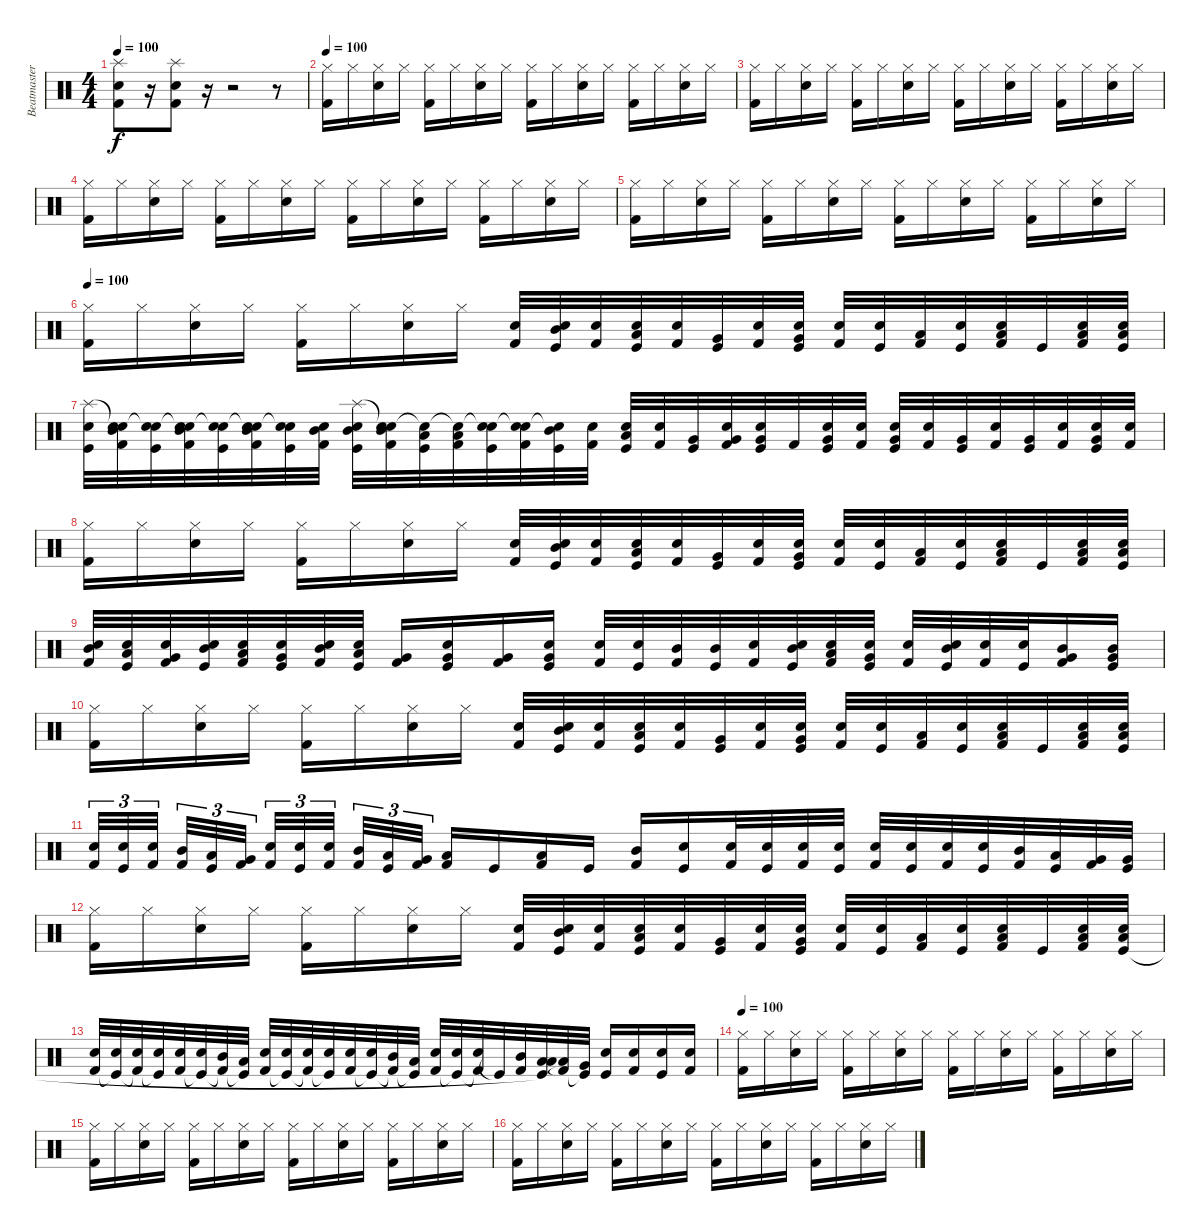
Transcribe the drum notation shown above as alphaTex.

\track ("Beatmaster V." "Beatmaster") {instrument percussion}
\staff {score}
\articulation defaults
\ts (4 4)
\tempo 100
\clef neutral
\ks c
("Splash (hit)" "Snare (hit) 2" "Kick (hit) 2").8{dy f} r.16 ("Splash (hit)" "Snare (hit) 2" "Kick (hit) 2").8 r.16 r.2 r.8 |
\tempo 100
("Hi-Hat (closed)" "Kick (hit) 2").16 "Hi-Hat (closed)".16 ("Hi-Hat (closed)" "Snare (hit) 2").16 "Hi-Hat (closed)".16 ("Hi-Hat (closed)" "Kick (hit) 2").16 "Hi-Hat (closed)".16 ("Hi-Hat (closed)" "Snare (hit) 2").16 "Hi-Hat (closed)".16 ("Hi-Hat (closed)" "Kick (hit) 2").16 "Hi-Hat (closed)".16 ("Hi-Hat (closed)" "Snare (hit) 2").16 "Hi-Hat (closed)".16 ("Hi-Hat (closed)" "Kick (hit) 2").16 "Hi-Hat (closed)".16 ("Hi-Hat (closed)" "Snare (hit) 2").16 "Hi-Hat (closed)".16 |
("Hi-Hat (closed)" "Kick (hit) 2").16 "Hi-Hat (closed)".16 ("Hi-Hat (closed)" "Snare (hit) 2").16 "Hi-Hat (closed)".16 ("Hi-Hat (closed)" "Kick (hit) 2").16 "Hi-Hat (closed)".16 ("Hi-Hat (closed)" "Snare (hit) 2").16 "Hi-Hat (closed)".16 ("Hi-Hat (closed)" "Kick (hit) 2").16 "Hi-Hat (closed)".16 ("Hi-Hat (closed)" "Snare (hit) 2").16 "Hi-Hat (closed)".16 ("Hi-Hat (closed)" "Kick (hit) 2").16 "Hi-Hat (closed)".16 ("Hi-Hat (closed)" "Snare (hit) 2").16 "Hi-Hat (closed)".16 |
("Hi-Hat (closed)" "Kick (hit) 2").16 "Hi-Hat (closed)".16 ("Hi-Hat (closed)" "Snare (hit) 2").16 "Hi-Hat (closed)".16 ("Hi-Hat (closed)" "Kick (hit) 2").16 "Hi-Hat (closed)".16 ("Hi-Hat (closed)" "Snare (hit) 2").16 "Hi-Hat (closed)".16 ("Hi-Hat (closed)" "Kick (hit) 2").16 "Hi-Hat (closed)".16 ("Hi-Hat (closed)" "Snare (hit) 2").16 "Hi-Hat (closed)".16 ("Hi-Hat (closed)" "Kick (hit) 2").16 "Hi-Hat (closed)".16 ("Hi-Hat (closed)" "Snare (hit) 2").16 "Hi-Hat (closed)".16 |
("Hi-Hat (closed)" "Kick (hit) 2").16 "Hi-Hat (closed)".16 ("Hi-Hat (closed)" "Snare (hit) 2").16 "Hi-Hat (closed)".16 ("Hi-Hat (closed)" "Kick (hit) 2").16 "Hi-Hat (closed)".16 ("Hi-Hat (closed)" "Snare (hit) 2").16 "Hi-Hat (closed)".16 ("Hi-Hat (closed)" "Kick (hit) 2").16 "Hi-Hat (closed)".16 ("Hi-Hat (closed)" "Snare (hit) 2").16 "Hi-Hat (closed)".16 ("Hi-Hat (closed)" "Kick (hit) 2").16 "Hi-Hat (closed)".16 ("Hi-Hat (closed)" "Snare (hit) 2").16 "Hi-Hat (closed)".16 |
\tempo 100
("Hi-Hat (closed)" "Kick (hit) 2").16 "Hi-Hat (closed)".16 ("Hi-Hat (closed)" "Snare (hit) 2").16 "Hi-Hat (closed)".16 ("Hi-Hat (closed)" "Kick (hit) 2").16 "Hi-Hat (closed)".16 ("Hi-Hat (closed)" "Snare (hit) 2").16 "Hi-Hat (closed)".16 ("Snare (hit) 2" "Kick (hit) 2").32 ("Snare (hit) 2" "Mid Tom (hit)" "Kick (hit)").32 ("Snare (hit) 2" "Kick (hit) 2").32 ("Snare (hit) 2" "Low Tom (hit)" "Kick (hit)").32 ("Snare (hit) 2" "Kick (hit) 2").32 ("Very Low Tom (hit)" "Kick (hit)").32 ("Snare (hit) 2" "Kick (hit) 2").32 ("Snare (hit) 2" "Very Low Tom (hit)" "Kick (hit)").32 ("Snare (hit) 2" "Kick (hit) 2").32 ("Snare (hit) 2" "Kick (hit)").32 ("Low Tom (hit)" "Kick (hit) 2").32 ("Snare (hit) 2" "Kick (hit)").32 ("Snare (hit) 2" "Low Tom (hit)" "Kick (hit) 2").32 "Kick (hit)".32 ("Snare (hit) 2" "Low Tom (hit)" "Kick (hit) 2").32 ("Snare (hit) 2" "Low Tom (hit)" "Kick (hit)").32 |
("Splash (hit)" "Snare (hit) 2" "Kick (hit)").32 ("Snare (hit)"{t} "Snare (hit) 2" "Mid Tom (hit)" "Kick (hit) 2").32 ("Snare (hit)"{t} "Snare (hit) 2" "Kick (hit)").32 ("Snare (hit)"{t} "Snare (hit) 2" "Mid Tom (hit)" "Kick (hit) 2").32 ("Snare (hit)"{t} "Snare (hit) 2" "Kick (hit)").32 ("Snare (hit)"{t} "Snare (hit) 2" "Mid Tom (hit)" "Kick (hit) 2").32 ("Snare (hit)"{t} "Snare (hit) 2" "Kick (hit)").32 ("Snare (hit) 2" "Mid Tom (hit)" "Kick (hit) 2").32 ("Splash (hit)" "Snare (hit) 2" "Mid Tom (hit)" "Kick (hit)").32 ("Snare (hit)"{t} "Snare (hit) 2" "Mid Tom (hit)" "Kick (hit) 2").32 ("Snare (hit)"{t} "Low Tom (hit)" "Kick (hit)").32 ("Snare (hit)"{t} "Low Tom (hit)" "Kick (hit) 2").32 ("Snare (hit)"{t} "Snare (hit) 2" "Kick (hit)").32 ("Snare (hit)"{t} "Snare (hit) 2" "Kick (hit) 2").32 ("Snare (hit)"{t} "Mid Tom (hit)" "Kick (hit)").32 ("Snare (hit) 2" "Kick (hit) 2").32 ("Snare (hit) 2" "Low Tom (hit)" "Kick (hit)").32 ("Snare (hit) 2" "Kick (hit) 2").32 ("Very Low Tom (hit)" "Kick (hit)").32 ("Snare (hit) 2" "Very Low Tom (hit)" "Kick (hit) 2").32 ("Snare (hit) 2" "Very Low Tom (hit)" "Kick (hit)").32 "Kick (hit) 2".32 ("Snare (hit) 2" "Very Low Tom (hit)" "Kick (hit)").32 ("Snare (hit) 2" "Kick (hit) 2").32 ("Snare (hit) 2" "Very Low Tom (hit)" "Kick (hit)").32 ("Snare (hit) 2" "Kick (hit) 2").32 ("Very Low Tom (hit)" "Kick (hit)").32 ("Snare (hit) 2" "Kick (hit) 2").32 ("Very Low Tom (hit)" "Kick (hit)").32 ("Snare (hit) 2" "Kick (hit) 2").32 ("Snare (hit) 2" "Very Low Tom (hit)" "Kick (hit)").32 ("Snare (hit) 2" "Kick (hit) 2").32 |
("Hi-Hat (closed)" "Kick (hit) 2").16 "Hi-Hat (closed)".16 ("Hi-Hat (closed)" "Snare (hit) 2").16 "Hi-Hat (closed)".16 ("Hi-Hat (closed)" "Kick (hit) 2").16 "Hi-Hat (closed)".16 ("Hi-Hat (closed)" "Snare (hit) 2").16 "Hi-Hat (closed)".16 ("Snare (hit) 2" "Kick (hit) 2").32 ("Snare (hit) 2" "Mid Tom (hit)" "Kick (hit)").32 ("Snare (hit) 2" "Kick (hit) 2").32 ("Snare (hit) 2" "Low Tom (hit)" "Kick (hit)").32 ("Snare (hit) 2" "Kick (hit) 2").32 ("Very Low Tom (hit)" "Kick (hit)").32 ("Snare (hit) 2" "Kick (hit) 2").32 ("Snare (hit) 2" "Very Low Tom (hit)" "Kick (hit)").32 ("Snare (hit) 2" "Kick (hit) 2").32 ("Snare (hit) 2" "Kick (hit)").32 ("Low Tom (hit)" "Kick (hit) 2").32 ("Snare (hit) 2" "Kick (hit)").32 ("Snare (hit) 2" "Low Tom (hit)" "Kick (hit) 2").32 "Kick (hit)".32 ("Snare (hit) 2" "Low Tom (hit)" "Kick (hit) 2").32 ("Snare (hit) 2" "Low Tom (hit)" "Kick (hit)").32 |
("Snare (hit) 2" "Mid Tom (hit)" "Kick (hit) 2").32 ("Snare (hit) 2" "Low Tom (hit)" "Kick (hit)").32 ("Snare (hit) 2" "Very Low Tom (hit)" "Kick (hit) 2").32 ("Snare (hit) 2" "Mid Tom (hit)" "Kick (hit)").32 ("Snare (hit) 2" "Low Tom (hit)" "Kick (hit) 2").32 ("Snare (hit) 2" "Very Low Tom (hit)" "Kick (hit)").32 ("Snare (hit) 2" "Mid Tom (hit)" "Kick (hit) 2").32 ("Snare (hit) 2" "Low Tom (hit)" "Kick (hit)").32 ("Very Low Tom (hit)" "Kick (hit) 2").16 ("Snare (hit) 2" "Very Low Tom (hit)" "Kick (hit)").16 ("Very Low Tom (hit)" "Kick (hit) 2").16 ("Snare (hit) 2" "Very Low Tom (hit)" "Kick (hit)").16 ("Snare (hit) 2" "Kick (hit) 2").32 ("Snare (hit) 2" "Kick (hit)").32 ("Mid Tom (hit)" "Kick (hit) 2").32 ("Mid Tom (hit)" "Kick (hit)").32 ("Snare (hit) 2" "Kick (hit) 2").32 ("Snare (hit) 2" "Mid Tom (hit)" "Kick (hit)").32 ("Snare (hit) 2" "Low Tom (hit)" "Kick (hit) 2").32 ("Snare (hit) 2" "Very Low Tom (hit)" "Kick (hit)").32 ("Snare (hit) 2" "Kick (hit) 2").32 ("Snare (hit) 2" "Mid Tom (hit)" "Kick (hit)").32 ("Snare (hit) 2" "Kick (hit) 2").32 ("Snare (hit) 2" "Kick (hit)").32 ("Mid Tom (hit)" "Very Low Tom (hit)" "Kick (hit) 2").16 ("Mid Tom (hit)" "Very Low Tom (hit)" "Kick (hit)").16 |
("Hi-Hat (closed)" "Kick (hit) 2").16 "Hi-Hat (closed)".16 ("Hi-Hat (closed)" "Snare (hit) 2").16 "Hi-Hat (closed)".16 ("Hi-Hat (closed)" "Kick (hit) 2").16 "Hi-Hat (closed)".16 ("Hi-Hat (closed)" "Snare (hit) 2").16 "Hi-Hat (closed)".16 ("Snare (hit) 2" "Kick (hit) 2").32 ("Snare (hit) 2" "Mid Tom (hit)" "Kick (hit)").32 ("Snare (hit) 2" "Kick (hit) 2").32 ("Snare (hit) 2" "Low Tom (hit)" "Kick (hit)").32 ("Snare (hit) 2" "Kick (hit) 2").32 ("Very Low Tom (hit)" "Kick (hit)").32 ("Snare (hit) 2" "Kick (hit) 2").32 ("Snare (hit) 2" "Very Low Tom (hit)" "Kick (hit)").32 ("Snare (hit) 2" "Kick (hit) 2").32 ("Snare (hit) 2" "Kick (hit)").32 ("Low Tom (hit)" "Kick (hit) 2").32 ("Snare (hit) 2" "Kick (hit)").32 ("Snare (hit) 2" "Low Tom (hit)" "Kick (hit) 2").32 "Kick (hit)".32 ("Snare (hit) 2" "Low Tom (hit)" "Kick (hit) 2").32 ("Snare (hit) 2" "Low Tom (hit)" "Kick (hit)").32 |
("Snare (hit) 2" "Kick (hit) 2").32{tu (3 2)} ("Snare (hit) 2" "Kick (hit)").32{tu (3 2)} ("Snare (hit) 2" "Kick (hit) 2").32{tu (3 2)} ("Mid Tom (hit)" "Kick (hit) 2").32{tu (3 2)} ("Low Tom (hit)" "Kick (hit)").32{tu (3 2)} ("Very Low Tom (hit)" "Kick (hit) 2").32{tu (3 2)} ("Snare (hit) 2" "Kick (hit) 2").32{tu (3 2)} ("Snare (hit) 2" "Kick (hit)").32{tu (3 2)} ("Snare (hit) 2" "Kick (hit) 2").32{tu (3 2)} ("Mid Tom (hit)" "Kick (hit) 2").32{tu (3 2)} ("Low Tom (hit)" "Kick (hit)").32{tu (3 2)} ("Very Low Tom (hit)" "Kick (hit) 2").32{tu (3 2)} ("Low Tom (hit)" "Kick (hit) 2").16 "Kick (hit)".16 ("Low Tom (hit)" "Kick (hit) 2").16 "Kick (hit)".16 ("Mid Tom (hit)" "Kick (hit) 2").16 ("Snare (hit) 2" "Kick (hit)").16 ("Snare (hit) 2" "Kick (hit) 2").32 ("Snare (hit) 2" "Kick (hit)").32 ("Snare (hit) 2" "Kick (hit) 2").32 ("Snare (hit) 2" "Kick (hit)").32 ("Snare (hit) 2" "Kick (hit) 2").32 ("Snare (hit) 2" "Kick (hit)").32 ("Snare (hit) 2" "Kick (hit) 2").32 ("Snare (hit) 2" "Kick (hit)").32 ("Mid Tom (hit)" "Kick (hit) 2").32 ("Low Tom (hit)" "Kick (hit)").32 ("Very Low Tom (hit)" "Kick (hit) 2").32 ("Very Low Tom (hit)" "Kick (hit)").32 |
("Hi-Hat (closed)" "Kick (hit) 2").16 "Hi-Hat (closed)".16 ("Hi-Hat (closed)" "Snare (hit) 2").16 "Hi-Hat (closed)".16 ("Hi-Hat (closed)" "Kick (hit) 2").16 "Hi-Hat (closed)".16 ("Hi-Hat (closed)" "Snare (hit) 2").16 "Hi-Hat (closed)".16 ("Snare (hit) 2" "Kick (hit) 2").32 ("Snare (hit) 2" "Mid Tom (hit)" "Kick (hit)").32 ("Snare (hit) 2" "Kick (hit) 2").32 ("Snare (hit) 2" "Low Tom (hit)" "Kick (hit)").32 ("Snare (hit) 2" "Kick (hit) 2").32 ("Very Low Tom (hit)" "Kick (hit)").32 ("Snare (hit) 2" "Kick (hit) 2").32 ("Snare (hit) 2" "Very Low Tom (hit)" "Kick (hit)").32 ("Snare (hit) 2" "Kick (hit) 2").32 ("Snare (hit) 2" "Kick (hit)").32 ("Low Tom (hit)" "Kick (hit) 2").32 ("Snare (hit) 2" "Kick (hit)").32 ("Snare (hit) 2" "Low Tom (hit)" "Kick (hit) 2").32 "Kick (hit)".32 ("Snare (hit) 2" "Low Tom (hit)" "Kick (hit) 2").32 ("Snare (hit) 2" "Low Tom (hit)" "Kick (hit)").32 |
("Snare (hit) 2" "Kick (hit) 2").32 ("Snare (hit) 2" "Kick (hit)"{t}).32 ("Snare (hit) 2" "Kick (hit) 2"{t}).32 ("Snare (hit) 2" "Kick (hit)"{t}).32 ("Snare (hit) 2" "Kick (hit) 2").32 ("Snare (hit) 2" "Kick (hit)"{t}).32 ("Mid Tom (hit)" "Kick (hit) 2"{t}).32 ("Low Tom (hit)" "Kick (hit)"{t}).32 ("Snare (hit) 2" "Kick (hit) 2").32 ("Snare (hit) 2" "Kick (hit)"{t}).32 ("Snare (hit) 2" "Kick (hit) 2"{t}).32 ("Snare (hit) 2" "Kick (hit)"{t}).32 ("Snare (hit) 2" "Kick (hit) 2").32 ("Snare (hit) 2" "Kick (hit)"{t}).32 ("Mid Tom (hit)" "Kick (hit) 2"{t}).32 ("Low Tom (hit)" "Kick (hit)"{t}).32 ("Snare (hit) 2" "Kick (hit) 2").32 ("Snare (hit) 2" "Kick (hit)"{t}).32 ("Snare (hit) 2" "Kick (hit) 2"{t}).32 "Kick (hit)"{t}.32 ("Mid Tom (hit)" "Kick (hit) 2").32 ("Low Tom (hit)" "Low Tom (hit)" "Kick (hit)"{t}).32 ("Low Tom (hit)" "Kick (hit) 2"{t}).32 ("Very Low Tom (hit)" "Kick (hit)"{t}).32 ("Snare (hit) 2" "Kick (hit)").16 ("Snare (hit) 2" "Kick (hit) 2").16 ("Snare (hit) 2" "Kick (hit)").16 ("Snare (hit) 2" "Kick (hit) 2").16 |
\tempo 100
("Hi-Hat (closed)" "Kick (hit) 2").16 "Hi-Hat (closed)".16 ("Hi-Hat (closed)" "Snare (hit) 2").16 "Hi-Hat (closed)".16 ("Hi-Hat (closed)" "Kick (hit) 2").16 "Hi-Hat (closed)".16 ("Hi-Hat (closed)" "Snare (hit) 2").16 "Hi-Hat (closed)".16 ("Hi-Hat (closed)" "Kick (hit) 2").16 "Hi-Hat (closed)".16 ("Hi-Hat (closed)" "Snare (hit) 2").16 "Hi-Hat (closed)".16 ("Hi-Hat (closed)" "Kick (hit) 2").16 "Hi-Hat (closed)".16 ("Hi-Hat (closed)" "Snare (hit) 2").16 "Hi-Hat (closed)".16 |
("Hi-Hat (closed)" "Kick (hit) 2").16 "Hi-Hat (closed)".16 ("Hi-Hat (closed)" "Snare (hit) 2").16 "Hi-Hat (closed)".16 ("Hi-Hat (closed)" "Kick (hit) 2").16 "Hi-Hat (closed)".16 ("Hi-Hat (closed)" "Snare (hit) 2").16 "Hi-Hat (closed)".16 ("Hi-Hat (closed)" "Kick (hit) 2").16 "Hi-Hat (closed)".16 ("Hi-Hat (closed)" "Snare (hit) 2").16 "Hi-Hat (closed)".16 ("Hi-Hat (closed)" "Kick (hit) 2").16 "Hi-Hat (closed)".16 ("Hi-Hat (closed)" "Snare (hit) 2").16 "Hi-Hat (closed)".16 |
("Hi-Hat (closed)" "Kick (hit) 2").16 "Hi-Hat (closed)".16 ("Hi-Hat (closed)" "Snare (hit) 2").16 "Hi-Hat (closed)".16 ("Hi-Hat (closed)" "Kick (hit) 2").16 "Hi-Hat (closed)".16 ("Hi-Hat (closed)" "Snare (hit) 2").16 "Hi-Hat (closed)".16 ("Hi-Hat (closed)" "Kick (hit) 2").16 "Hi-Hat (closed)".16 ("Hi-Hat (closed)" "Snare (hit) 2").16 "Hi-Hat (closed)".16 ("Hi-Hat (closed)" "Kick (hit) 2").16 "Hi-Hat (closed)".16 ("Hi-Hat (closed)" "Snare (hit) 2").16 "Hi-Hat (closed)".16
